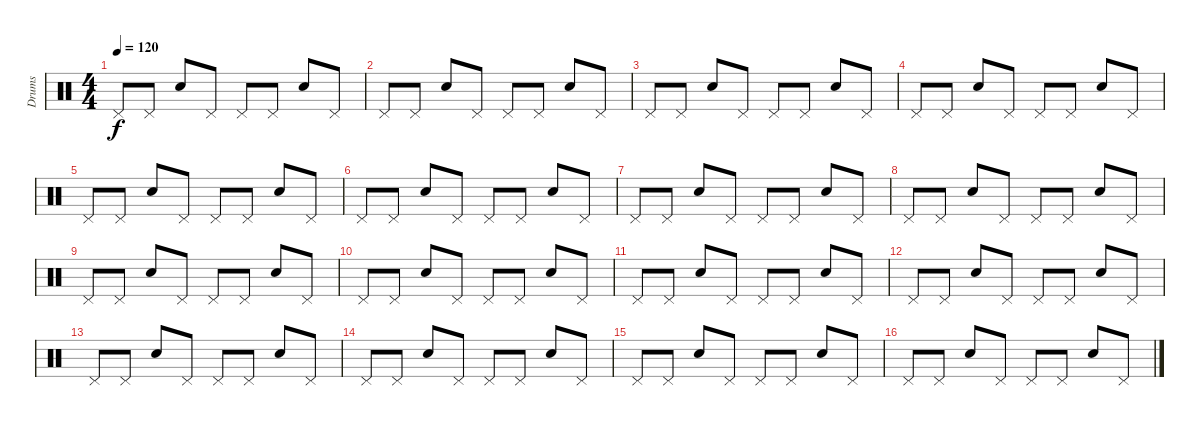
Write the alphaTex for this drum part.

\track ("Drums" "Drums") {instrument percussion}
\staff {score}
\articulation defaults
\ts (4 4)
\tempo 120
\clef neutral
\ks c "Pedal Hi-Hat (hit)".8{dy f} "Pedal Hi-Hat (hit)".8 "Snare (hit) 2".8 "Pedal Hi-Hat (hit)".8 "Pedal Hi-Hat (hit)".8 "Pedal Hi-Hat (hit)".8 "Snare (hit) 2".8 "Pedal Hi-Hat (hit)".8
|
"Pedal Hi-Hat (hit)".8 "Pedal Hi-Hat (hit)".8 "Snare (hit) 2".8 "Pedal Hi-Hat (hit)".8 "Pedal Hi-Hat (hit)".8 "Pedal Hi-Hat (hit)".8 "Snare (hit) 2".8 "Pedal Hi-Hat (hit)".8 |
"Pedal Hi-Hat (hit)".8 "Pedal Hi-Hat (hit)".8 "Snare (hit) 2".8 "Pedal Hi-Hat (hit)".8 "Pedal Hi-Hat (hit)".8 "Pedal Hi-Hat (hit)".8 "Snare (hit) 2".8 "Pedal Hi-Hat (hit)".8 |
"Pedal Hi-Hat (hit)".8 "Pedal Hi-Hat (hit)".8 "Snare (hit) 2".8 "Pedal Hi-Hat (hit)".8 "Pedal Hi-Hat (hit)".8 "Pedal Hi-Hat (hit)".8 "Snare (hit) 2".8 "Pedal Hi-Hat (hit)".8 |
"Pedal Hi-Hat (hit)".8 "Pedal Hi-Hat (hit)".8 "Snare (hit) 2".8 "Pedal Hi-Hat (hit)".8 "Pedal Hi-Hat (hit)".8 "Pedal Hi-Hat (hit)".8 "Snare (hit) 2".8 "Pedal Hi-Hat (hit)".8 |
"Pedal Hi-Hat (hit)".8 "Pedal Hi-Hat (hit)".8 "Snare (hit) 2".8 "Pedal Hi-Hat (hit)".8 "Pedal Hi-Hat (hit)".8 "Pedal Hi-Hat (hit)".8 "Snare (hit) 2".8 "Pedal Hi-Hat (hit)".8 |
"Pedal Hi-Hat (hit)".8 "Pedal Hi-Hat (hit)".8 "Snare (hit) 2".8 "Pedal Hi-Hat (hit)".8 "Pedal Hi-Hat (hit)".8 "Pedal Hi-Hat (hit)".8 "Snare (hit) 2".8 "Pedal Hi-Hat (hit)".8 |
"Pedal Hi-Hat (hit)".8 "Pedal Hi-Hat (hit)".8 "Snare (hit) 2".8 "Pedal Hi-Hat (hit)".8 "Pedal Hi-Hat (hit)".8 "Pedal Hi-Hat (hit)".8 "Snare (hit) 2".8 "Pedal Hi-Hat (hit)".8 |
"Pedal Hi-Hat (hit)".8 "Pedal Hi-Hat (hit)".8 "Snare (hit) 2".8 "Pedal Hi-Hat (hit)".8 "Pedal Hi-Hat (hit)".8 "Pedal Hi-Hat (hit)".8 "Snare (hit) 2".8 "Pedal Hi-Hat (hit)".8 |
"Pedal Hi-Hat (hit)".8 "Pedal Hi-Hat (hit)".8 "Snare (hit) 2".8 "Pedal Hi-Hat (hit)".8 "Pedal Hi-Hat (hit)".8 "Pedal Hi-Hat (hit)".8 "Snare (hit) 2".8 "Pedal Hi-Hat (hit)".8 |
"Pedal Hi-Hat (hit)".8 "Pedal Hi-Hat (hit)".8 "Snare (hit) 2".8 "Pedal Hi-Hat (hit)".8 "Pedal Hi-Hat (hit)".8 "Pedal Hi-Hat (hit)".8 "Snare (hit) 2".8 "Pedal Hi-Hat (hit)".8 |
"Pedal Hi-Hat (hit)".8 "Pedal Hi-Hat (hit)".8 "Snare (hit) 2".8 "Pedal Hi-Hat (hit)".8 "Pedal Hi-Hat (hit)".8 "Pedal Hi-Hat (hit)".8 "Snare (hit) 2".8 "Pedal Hi-Hat (hit)".8 |
"Pedal Hi-Hat (hit)".8 "Pedal Hi-Hat (hit)".8 "Snare (hit) 2".8 "Pedal Hi-Hat (hit)".8 "Pedal Hi-Hat (hit)".8 "Pedal Hi-Hat (hit)".8 "Snare (hit) 2".8 "Pedal Hi-Hat (hit)".8 |
"Pedal Hi-Hat (hit)".8 "Pedal Hi-Hat (hit)".8 "Snare (hit) 2".8 "Pedal Hi-Hat (hit)".8 "Pedal Hi-Hat (hit)".8 "Pedal Hi-Hat (hit)".8 "Snare (hit) 2".8 "Pedal Hi-Hat (hit)".8 |
"Pedal Hi-Hat (hit)".8 "Pedal Hi-Hat (hit)".8 "Snare (hit) 2".8 "Pedal Hi-Hat (hit)".8 "Pedal Hi-Hat (hit)".8 "Pedal Hi-Hat (hit)".8 "Snare (hit) 2".8 "Pedal Hi-Hat (hit)".8 |
"Pedal Hi-Hat (hit)".8 "Pedal Hi-Hat (hit)".8 "Snare (hit) 2".8 "Pedal Hi-Hat (hit)".8 "Pedal Hi-Hat (hit)".8 "Pedal Hi-Hat (hit)".8 "Snare (hit) 2".8 "Pedal Hi-Hat (hit)".8
